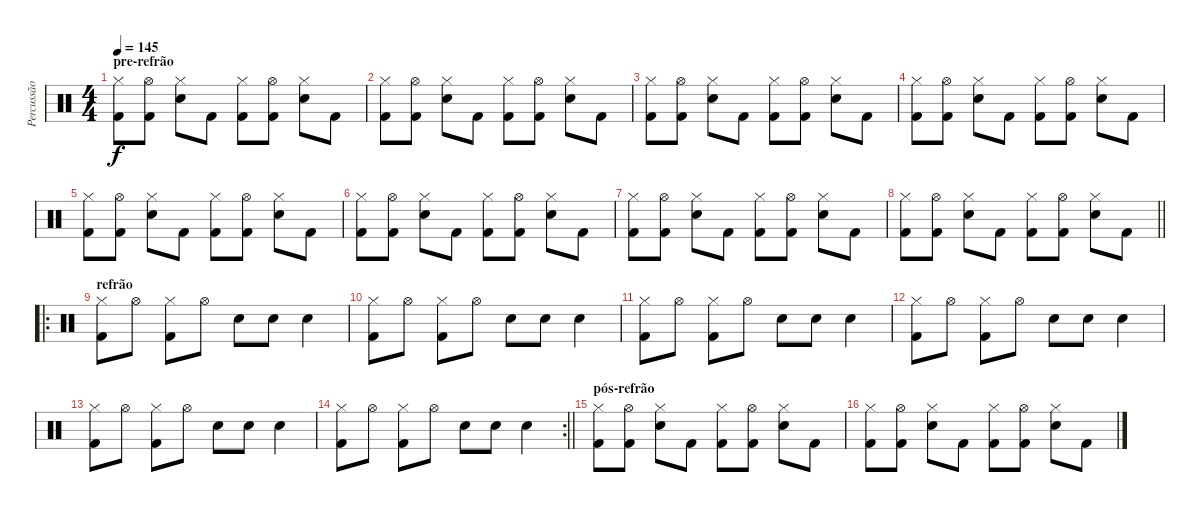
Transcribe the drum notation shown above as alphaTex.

\track ("Percussão" "Percussão") {instrument percussion}
\staff {score}
\articulation defaults
\ts (4 4)
\section ("" "pre-refrão")
\tempo 145
\clef neutral
\ks c
("Hi-Hat (closed)" "Kick (hit) 2").8{dy f} ("Hi-Hat (open)" "Kick (hit) 2").8 ("Hi-Hat (closed)" "Snare (hit) 2").8 "Kick (hit) 2".8 ("Hi-Hat (closed)" "Kick (hit) 2").8 ("Hi-Hat (open)" "Kick (hit) 2").8 ("Hi-Hat (closed)" "Snare (hit) 2").8 "Kick (hit) 2".8 |
("Hi-Hat (closed)" "Kick (hit) 2").8 ("Hi-Hat (open)" "Kick (hit) 2").8 ("Hi-Hat (closed)" "Snare (hit) 2").8 "Kick (hit) 2".8 ("Hi-Hat (closed)" "Kick (hit) 2").8 ("Hi-Hat (open)" "Kick (hit) 2").8 ("Hi-Hat (closed)" "Snare (hit) 2").8 "Kick (hit) 2".8 |
("Hi-Hat (closed)" "Kick (hit) 2").8 ("Hi-Hat (open)" "Kick (hit) 2").8 ("Hi-Hat (closed)" "Snare (hit) 2").8 "Kick (hit) 2".8 ("Hi-Hat (closed)" "Kick (hit) 2").8 ("Hi-Hat (open)" "Kick (hit) 2").8 ("Hi-Hat (closed)" "Snare (hit) 2").8 "Kick (hit) 2".8 |
("Hi-Hat (closed)" "Kick (hit) 2").8 ("Hi-Hat (open)" "Kick (hit) 2").8 ("Hi-Hat (closed)" "Snare (hit) 2").8 "Kick (hit) 2".8 ("Hi-Hat (closed)" "Kick (hit) 2").8 ("Hi-Hat (open)" "Kick (hit) 2").8 ("Hi-Hat (closed)" "Snare (hit) 2").8 "Kick (hit) 2".8 |
("Hi-Hat (closed)" "Kick (hit) 2").8 ("Hi-Hat (open)" "Kick (hit) 2").8 ("Hi-Hat (closed)" "Snare (hit) 2").8 "Kick (hit) 2".8 ("Hi-Hat (closed)" "Kick (hit) 2").8 ("Hi-Hat (open)" "Kick (hit) 2").8 ("Hi-Hat (closed)" "Snare (hit) 2").8 "Kick (hit) 2".8 |
("Hi-Hat (closed)" "Kick (hit) 2").8 ("Hi-Hat (open)" "Kick (hit) 2").8 ("Hi-Hat (closed)" "Snare (hit) 2").8 "Kick (hit) 2".8 ("Hi-Hat (closed)" "Kick (hit) 2").8 ("Hi-Hat (open)" "Kick (hit) 2").8 ("Hi-Hat (closed)" "Snare (hit) 2").8 "Kick (hit) 2".8 |
("Hi-Hat (closed)" "Kick (hit) 2").8 ("Hi-Hat (open)" "Kick (hit) 2").8 ("Hi-Hat (closed)" "Snare (hit) 2").8 "Kick (hit) 2".8 ("Hi-Hat (closed)" "Kick (hit) 2").8 ("Hi-Hat (open)" "Kick (hit) 2").8 ("Hi-Hat (closed)" "Snare (hit) 2").8 "Kick (hit) 2".8 |
\barLineRight lightlight
("Hi-Hat (closed)" "Kick (hit) 2").8 ("Hi-Hat (open)" "Kick (hit) 2").8 ("Hi-Hat (closed)" "Snare (hit) 2").8 "Kick (hit) 2".8 ("Hi-Hat (closed)" "Kick (hit) 2").8 ("Hi-Hat (open)" "Kick (hit) 2").8 ("Hi-Hat (closed)" "Snare (hit) 2").8 "Kick (hit) 2".8 |
\ro
\section ("" "refrão")
("Hi-Hat (closed)" "Kick (hit) 2").8 "Hi-Hat (open)".8 ("Hi-Hat (closed)" "Kick (hit) 2").8 "Hi-Hat (open)".8 "Snare (hit) 2".8 "Snare (hit) 2".8 "Snare (hit) 2".4 |
("Hi-Hat (closed)" "Kick (hit) 2").8 "Hi-Hat (open)".8 ("Hi-Hat (closed)" "Kick (hit) 2").8 "Hi-Hat (open)".8 "Snare (hit) 2".8 "Snare (hit) 2".8 "Snare (hit) 2".4 |
("Hi-Hat (closed)" "Kick (hit) 2").8 "Hi-Hat (open)".8 ("Hi-Hat (closed)" "Kick (hit) 2").8 "Hi-Hat (open)".8 "Snare (hit) 2".8 "Snare (hit) 2".8 "Snare (hit) 2".4 |
("Hi-Hat (closed)" "Kick (hit) 2").8 "Hi-Hat (open)".8 ("Hi-Hat (closed)" "Kick (hit) 2").8 "Hi-Hat (open)".8 "Snare (hit) 2".8 "Snare (hit) 2".8 "Snare (hit) 2".4 |
("Hi-Hat (closed)" "Kick (hit) 2").8 "Hi-Hat (open)".8 ("Hi-Hat (closed)" "Kick (hit) 2").8 "Hi-Hat (open)".8 "Snare (hit) 2".8 "Snare (hit) 2".8 "Snare (hit) 2".4 |
\rc 2
\barLineRight lightlight
("Hi-Hat (closed)" "Kick (hit) 2").8 "Hi-Hat (open)".8 ("Hi-Hat (closed)" "Kick (hit) 2").8 "Hi-Hat (open)".8 "Snare (hit) 2".8 "Snare (hit) 2".8 "Snare (hit) 2".4 |
\section ("" "pós-refrão")
("Hi-Hat (closed)" "Kick (hit) 2").8 ("Hi-Hat (open)" "Kick (hit) 2").8 ("Hi-Hat (closed)" "Snare (hit) 2").8 "Kick (hit) 2".8 ("Hi-Hat (closed)" "Kick (hit) 2").8 ("Hi-Hat (open)" "Kick (hit) 2").8 ("Hi-Hat (closed)" "Snare (hit) 2").8 "Kick (hit) 2".8 |
("Hi-Hat (closed)" "Kick (hit) 2").8 ("Hi-Hat (open)" "Kick (hit) 2").8 ("Hi-Hat (closed)" "Snare (hit) 2").8 "Kick (hit) 2".8 ("Hi-Hat (closed)" "Kick (hit) 2").8 ("Hi-Hat (open)" "Kick (hit) 2").8 ("Hi-Hat (closed)" "Snare (hit) 2").8 "Kick (hit) 2".8
